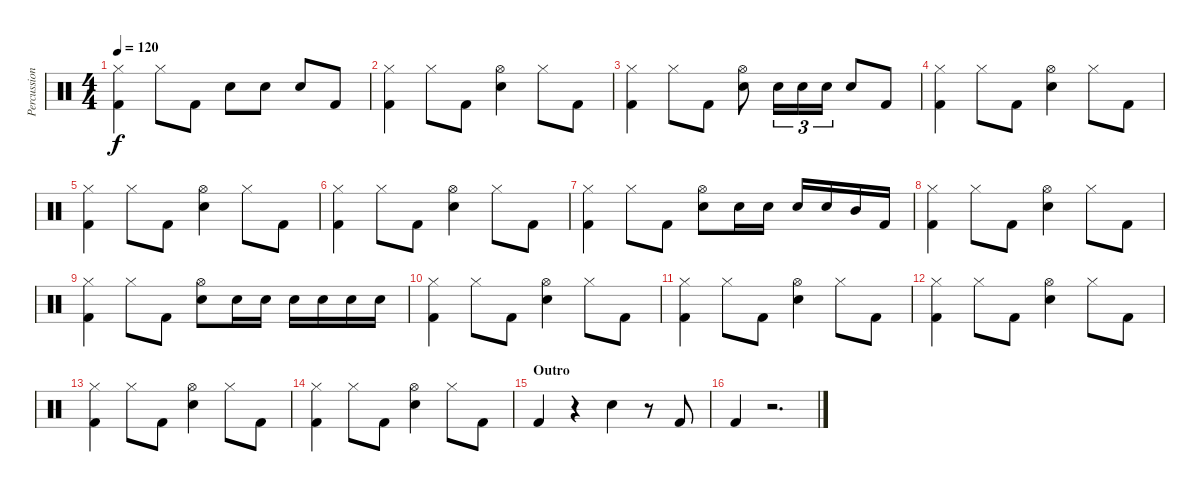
\track ("Percussion" "Percussion") {instrument percussion}
\staff {score}
\articulation defaults
\ts (4 4)
\tempo 120
\clef neutral
\ks c
("Hi-Hat (closed)" "Kick (hit) 2").4{dy f} "Hi-Hat (closed)".8 "Kick (hit) 2".8 "Snare (hit) 2".8 "Snare (hit) 2".8 "Snare (hit) 2".8 "Kick (hit) 2".8 |
("Hi-Hat (closed)" "Kick (hit) 2").4 "Hi-Hat (closed)".8 "Kick (hit) 2".8 ("Hi-Hat (open)" "Snare (hit) 2").4 "Hi-Hat (closed)".8 "Kick (hit) 2".8 |
("Hi-Hat (closed)" "Kick (hit) 2").4 "Hi-Hat (closed)".8 "Kick (hit) 2".8 ("Hi-Hat (open)" "Snare (hit) 2").8 "Snare (hit) 2".16{tu (3 2)} "Snare (hit) 2".16{tu (3 2)} "Snare (hit) 2".16{tu (3 2)} "Snare (hit) 2".8 "Kick (hit) 2".8 |
("Hi-Hat (closed)" "Kick (hit) 2").4 "Hi-Hat (closed)".8 "Kick (hit) 2".8 ("Hi-Hat (open)" "Snare (hit) 2").4 "Hi-Hat (closed)".8 "Kick (hit) 2".8 |
("Hi-Hat (closed)" "Kick (hit) 2").4 "Hi-Hat (closed)".8 "Kick (hit) 2".8 ("Hi-Hat (open)" "Snare (hit) 2").4 "Hi-Hat (closed)".8 "Kick (hit) 2".8 |
("Hi-Hat (closed)" "Kick (hit) 2").4 "Hi-Hat (closed)".8 "Kick (hit) 2".8 ("Hi-Hat (open)" "Snare (hit) 2").4 "Hi-Hat (closed)".8 "Kick (hit) 2".8 |
("Hi-Hat (closed)" "Kick (hit) 2").4 "Hi-Hat (closed)".8 "Kick (hit) 2".8 ("Hi-Hat (open)" "Snare (hit) 2").8 "Snare (hit) 2".16 "Snare (hit) 2".16 "Snare (hit) 2".16 "Snare (hit) 2".16 "Mid Tom (hit)".16 "Kick (hit) 2".16 |
("Hi-Hat (closed)" "Kick (hit) 2").4 "Hi-Hat (closed)".8 "Kick (hit) 2".8 ("Hi-Hat (open)" "Snare (hit) 2").4 "Hi-Hat (closed)".8 "Kick (hit) 2".8 |
("Hi-Hat (closed)" "Kick (hit) 2").4 "Hi-Hat (closed)".8 "Kick (hit) 2".8 ("Hi-Hat (open)" "Snare (hit) 2").8 "Snare (hit) 2".16 "Snare (hit) 2".16 "Snare (hit) 2".16 "Snare (hit) 2".16 "Snare (hit) 2".16 "Snare (hit) 2".16 |
("Hi-Hat (closed)" "Kick (hit) 2").4 "Hi-Hat (closed)".8 "Kick (hit) 2".8 ("Hi-Hat (open)" "Snare (hit) 2").4 "Hi-Hat (closed)".8 "Kick (hit) 2".8 |
("Hi-Hat (closed)" "Kick (hit) 2").4 "Hi-Hat (closed)".8 "Kick (hit) 2".8 ("Hi-Hat (open)" "Snare (hit) 2").4 "Hi-Hat (closed)".8 "Kick (hit) 2".8 |
("Hi-Hat (closed)" "Kick (hit) 2").4 "Hi-Hat (closed)".8 "Kick (hit) 2".8 ("Hi-Hat (open)" "Snare (hit) 2").4 "Hi-Hat (closed)".8 "Kick (hit) 2".8 |
("Hi-Hat (closed)" "Kick (hit) 2").4 "Hi-Hat (closed)".8 "Kick (hit) 2".8 ("Hi-Hat (open)" "Snare (hit) 2").4 "Hi-Hat (closed)".8 "Kick (hit) 2".8 |
("Hi-Hat (closed)" "Kick (hit) 2").4 "Hi-Hat (closed)".8 "Kick (hit) 2".8 ("Hi-Hat (open)" "Snare (hit) 2").4 "Hi-Hat (closed)".8 "Kick (hit) 2".8 |
\section ("" "Outro")
"Kick (hit) 2".4 r.4 "Snare (hit) 2".4 r.8 "Kick (hit) 2".8 |
"Kick (hit) 2".4 r.2{d}
